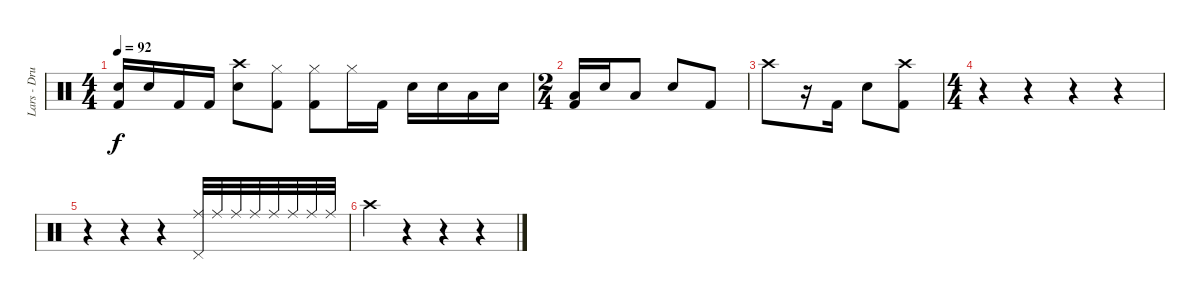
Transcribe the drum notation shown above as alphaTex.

\track ("Lars - Drums" "Lars - Dru") {instrument percussion}
\staff {score}
\articulation defaults
\ts (4 4)
\tempo 92
\clef neutral
\ks c
("Electric Snare (hit)" "Kick (hit) 2").16{dy f} "Electric Snare (hit)".16 "Kick (hit) 2".16 "Kick (hit) 2".16 ("Crash high (hit)" "Electric Snare (hit)").8 ("Hi-Hat (closed)" "Kick (hit) 2").8 ("Hi-Hat (closed)" "Kick (hit) 2").8 "Hi-Hat (closed)".16 "Kick (hit) 2".16 "Electric Snare (hit)".16 "Electric Snare (hit)".16 "Low Tom (hit)".16 "Electric Snare (hit)".16 |
\ts (2 4)
("Low Tom (hit)" "Kick (hit) 2").16 "Electric Snare (hit)".16 "Low Tom (hit)".8 "Electric Snare (hit)".8 "Kick (hit) 2".8 |
"Crash high (hit)".8 r.16 "Kick (hit) 2".16 "Electric Snare (hit)".8 ("Crash high (hit)" "Kick (hit) 2").8 |
\ts (4 4)
r.4 r.4 r.4 r.4 |
r.4 r.4 r.4 ("Ride (middle)" "Pedal Hi-Hat (hit)").32 "Ride (middle)".32 "Ride (middle)".32 "Ride (middle)".32 "Ride (middle)".32 "Ride (middle)".32 "Ride (middle)".32 "Ride (middle)".32 |
"Crash high (hit)".4 r.4 r.4 r.4
